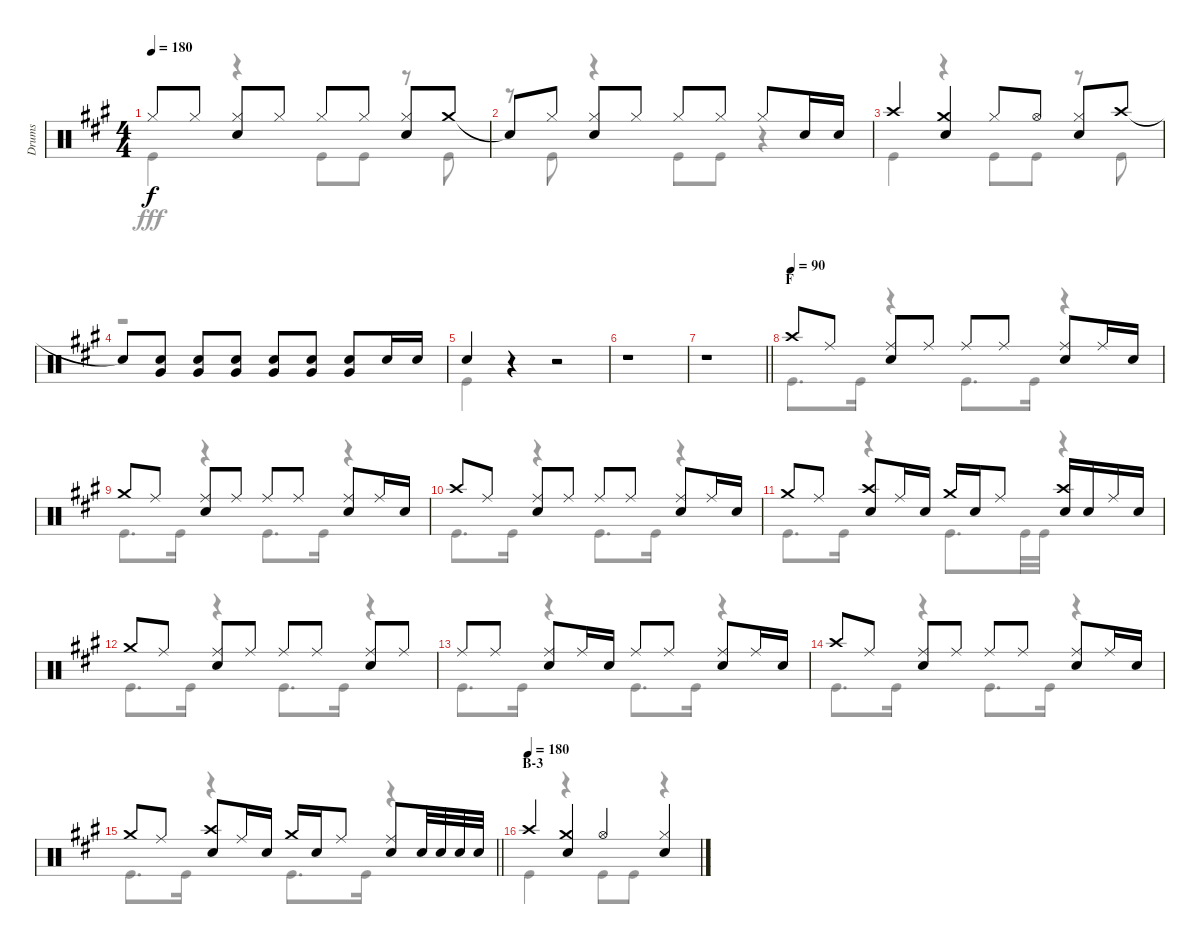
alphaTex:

\track ("Drums" "Drums") {instrument percussion}
\staff {score}
\articulation defaults
\voice
\ts (4 4)
\tempo 180
\clef neutral
\ks a "Hi-Hat (closed)".8{dy f} "Hi-Hat (closed)".8
("Hi-Hat (closed)" "Snare (hit) 2").8 "Hi-Hat (closed)".8 "Hi-Hat (closed)".8 "Hi-Hat (closed)".8 ("Hi-Hat (closed)" "Snare (hit) 2").8 "Crash medium (hit)".8 |
"Snare (hit)"{t}.8 "Hi-Hat (closed)".8 ("Hi-Hat (closed)" "Snare (hit) 2").8 "Hi-Hat (closed)".8 "Hi-Hat (closed)".8 "Hi-Hat (closed)".8 "Hi-Hat (closed)".8 "Snare (hit) 2".16 "Snare (hit) 2".16 |
"Crash high (hit)".4 ("Crash medium (hit)" "Snare (hit) 2").4 "Hi-Hat (closed)".8 "Hi-Hat (open)".8 ("Hi-Hat (closed)" "Snare (hit) 2").8 "Crash high (hit)".8 |
"Snare (hit)"{t}.8 ("Snare (hit) 2" "Very Low Tom (hit)").8 ("Snare (hit) 2" "Very Low Tom (hit)").8 ("Snare (hit) 2" "Very Low Tom (hit)").8 ("Snare (hit) 2" "Very Low Tom (hit)").8 ("Snare (hit) 2" "Very Low Tom (hit)").8 ("Snare (hit) 2" "Very Low Tom (hit)").8 "Snare (hit) 2".16 "Snare (hit) 2".16 |
"Snare (hit) 2".4 r.4 r.2 |
r.1 |
\barLineRight lightlight
r.1 |
\section ("" "F")
\tempo (90)
"Crash high (hit)".8 "Ride (middle)".8 ("Ride (middle)" "Snare (hit) 2").8 "Ride (middle)".8 "Ride (middle)".8 "Ride (middle)".8 ("Ride (middle)" "Snare (hit) 2").8 "Ride (middle)".16 "Snare (hit) 2".16 |
"Crash medium (hit)".8 "Ride (middle)".8 ("Ride (middle)" "Snare (hit) 2").8 "Ride (middle)".8 "Ride (middle)".8 "Ride (middle)".8 ("Ride (middle)" "Snare (hit) 2").8 "Ride (middle)".16 "Snare (hit) 2".16 |
"Crash high (hit)".8 "Ride (middle)".8 ("Ride (middle)" "Snare (hit) 2").8 "Ride (middle)".8 "Ride (middle)".8 "Ride (middle)".8 ("Ride (middle)" "Snare (hit) 2").8 "Ride (middle)".16 "Snare (hit) 2".16 |
"Crash medium (hit)".8 "Ride (middle)".8 ("Crash high (hit)" "Snare (hit) 2").8 "Ride (middle)".16 "Snare (hit) 2".16 "Crash medium (hit)".16 "Snare (hit) 2".16 "Ride (middle)".8 ("Crash high (hit)" "Snare (hit) 2").16 "Snare (hit) 2".16 "Ride (middle)".16 "Snare (hit) 2".16 |
"Crash medium (hit)".8 "Ride (middle)".8 ("Ride (middle)" "Snare (hit) 2").8 "Ride (middle)".8 "Ride (middle)".8 "Ride (middle)".8 ("Ride (middle)" "Snare (hit) 2").8 "Ride (middle)".8 |
"Ride (middle)".8 "Ride (middle)".8 ("Ride (middle)" "Snare (hit) 2").8 "Ride (middle)".16 "Snare (hit) 2".16 "Ride (middle)".8 "Ride (middle)".8 ("Ride (middle)" "Snare (hit) 2").8 "Ride (middle)".16 "Snare (hit) 2".16 |
"Crash high (hit)".8 "Ride (middle)".8 ("Ride (middle)" "Snare (hit) 2").8 "Ride (middle)".8 "Ride (middle)".8 "Ride (middle)".8 ("Ride (middle)" "Snare (hit) 2").8 "Ride (middle)".16 "Snare (hit) 2".16 |
\barLineRight lightlight "Crash medium (hit)".8 "Ride (middle)".8
("Crash high (hit)" "Snare (hit) 2").8 "Ride (middle)".16 "Snare (hit) 2".16 "Crash medium (hit)".16 "Snare (hit) 2".16 "Ride (middle)".8 ("Ride (middle)" "Snare (hit) 2").8 "Snare (hit) 2".32 "Snare (hit) 2".32 "Snare (hit) 2".32 "Snare (hit) 2".32 |
\section ("" "B-3")
\tempo (180)
"Crash high (hit)".4 ("Crash medium (hit)" "Snare (hit) 2").4 "Hi-Hat (open)".4 ("Hi-Hat (closed)" "Snare (hit) 2").4
\voice
\clef neutral
\ottava regular
\simile none
\ks a "Kick (hit)".4{dy fff}
r.4 "Kick (hit)".8 "Kick (hit)".8 r.8 "Kick (hit)".8 |
r.8 "Kick (hit)".8 r.4 "Kick (hit)".8 "Kick (hit)".8 r.4 |
"Kick (hit)".4 r.4 "Kick (hit)".8 "Kick (hit)".8 r.8 "Kick (hit)".8 |
r.1 |
"Kick (hit)".4 r.4 r.2 |
r.1 |
\barLineRight lightlight
r.1 |
"Kick (hit)".8{d} "Kick (hit)".16 r.4 "Kick (hit)".8{d} "Kick (hit)".16 r.4 |
"Kick (hit)".8{d} "Kick (hit)".16 r.4 "Kick (hit)".8{d} "Kick (hit)".16 r.4 |
"Kick (hit)".8{d} "Kick (hit)".16 r.4 "Kick (hit)".8{d} "Kick (hit)".16 r.4 |
"Kick (hit)".8{d} "Kick (hit)".16 r.4 "Kick (hit)".8{d} "Kick (hit)".32 "Kick (hit)".32 r.4 |
"Kick (hit)".8{d} "Kick (hit)".16 r.4 "Kick (hit)".8{d} "Kick (hit)".16 r.4 |
"Kick (hit)".8{d} "Kick (hit)".16 r.4 "Kick (hit)".8{d} "Kick (hit)".16 r.4 |
"Kick (hit)".8{d} "Kick (hit)".16 r.4 "Kick (hit)".8{d} "Kick (hit)".16 r.4 |
\barLineRight lightlight "Kick (hit)".8{d} "Kick (hit)".16
r.4 "Kick (hit)".8{d} "Kick (hit)".16 r.4 |
"Kick (hit)".4 r.4 "Kick (hit)".8 "Kick (hit)".8 r.4
